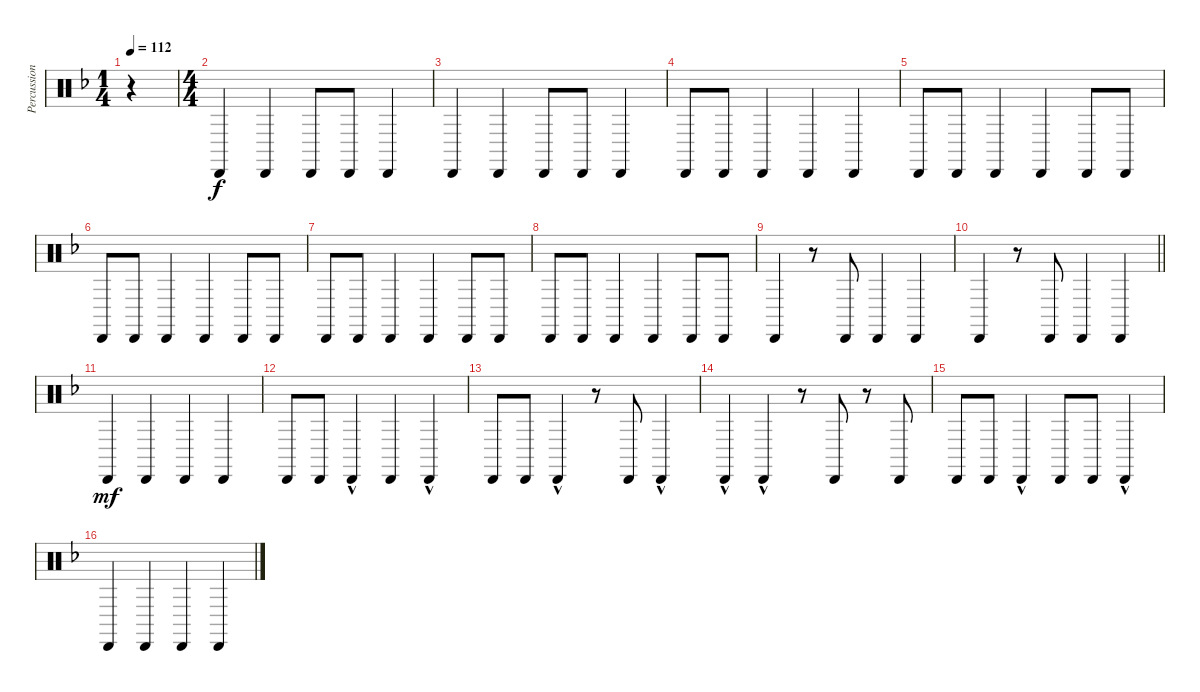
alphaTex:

\track ("Percussion" "Percussion") {instrument percussion}
\staff {score}
\articulation defaults
\ts (1 4)
\tempo 112
\clef neutral
\ks f
r.4{dy f} |
\ts (4 4)
"Cabasa (hit)".4 "Cabasa (hit)".4 "Cabasa (hit)".8 "Cabasa (hit)".8 "Cabasa (hit)".4 |
"Cabasa (hit)".4 "Cabasa (hit)".4 "Cabasa (hit)".8 "Cabasa (hit)".8 "Cabasa (hit)".4 |
"Cabasa (hit)".8 "Cabasa (hit)".8 "Cabasa (hit)".4 "Cabasa (hit)".4 "Cabasa (hit)".4 |
"Cabasa (hit)".8 "Cabasa (hit)".8 "Cabasa (hit)".4 "Cabasa (hit)".4 "Cabasa (hit)".8 "Cabasa (hit)".8 |
"Cabasa (hit)".8 "Cabasa (hit)".8 "Cabasa (hit)".4 "Cabasa (hit)".4 "Cabasa (hit)".8 "Cabasa (hit)".8 |
"Cabasa (hit)".8 "Cabasa (hit)".8 "Cabasa (hit)".4 "Cabasa (hit)".4 "Cabasa (hit)".8 "Cabasa (hit)".8 |
"Cabasa (hit)".8 "Cabasa (hit)".8 "Cabasa (hit)".4 "Cabasa (hit)".4 "Cabasa (hit)".8 "Cabasa (hit)".8 |
"Cabasa (hit)".4 r.8 "Cabasa (hit)".8 "Cabasa (hit)".4 "Cabasa (hit)".4 |
\barLineRight lightlight "Cabasa (hit)".4
r.8 "Cabasa (hit)".8 "Cabasa (hit)".4 "Cabasa (hit)".4 |
"Cabasa (hit)".4{dy mf} "Cabasa (hit)".4 "Cabasa (hit)".4 "Cabasa (hit)".4 |
"Cabasa (hit)".8 "Cabasa (hit)".8 "Cabasa (hit)"{hac}.4 "Cabasa (hit)".4 "Cabasa (hit)"{hac}.4 |
"Cabasa (hit)".8 "Cabasa (hit)".8 "Cabasa (hit)"{hac}.4 r.8 "Cabasa (hit)".8 "Cabasa (hit)"{hac}.4 |
"Cabasa (hit)"{hac}.4 "Cabasa (hit)"{hac}.4 r.8 "Cabasa (hit)".8 r.8 "Cabasa (hit)".8 |
"Cabasa (hit)".8 "Cabasa (hit)".8 "Cabasa (hit)"{hac}.4 "Cabasa (hit)".8 "Cabasa (hit)".8 "Cabasa (hit)"{hac}.4 |
"Cabasa (hit)".4 "Cabasa (hit)".4 "Cabasa (hit)".4 "Cabasa (hit)".4
